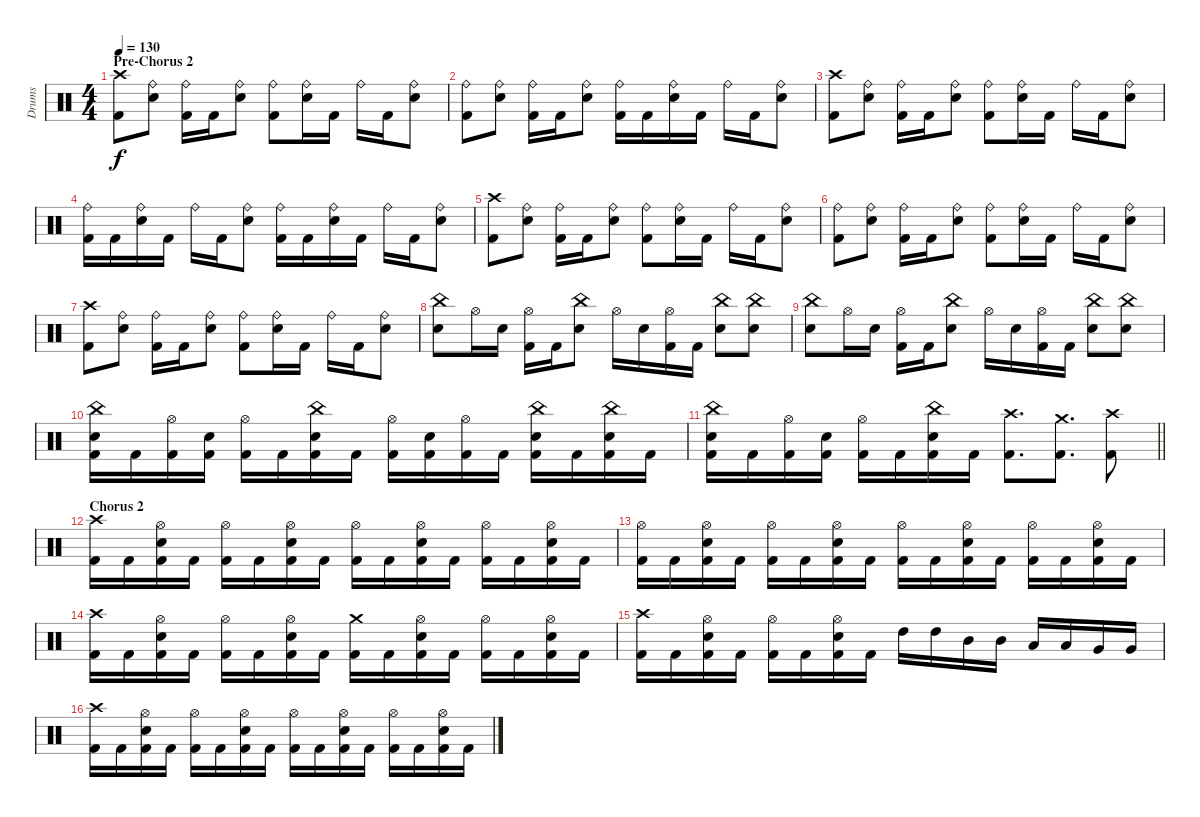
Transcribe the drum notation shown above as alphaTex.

\track ("Drums" "Drums") {instrument percussion}
\staff {score}
\articulation defaults
\ts (4 4)
\section ("" "Pre-Chorus 2")
\tempo 130
\clef neutral
\ks c
("Crash high (hit)" "Kick (hit) 2").8{dy f} ("Ride (bell)" "Electric Snare (hit)").8 ("Ride (bell)" "Kick (hit) 2").16 "Kick (hit) 2".16 ("Ride (bell)" "Electric Snare (hit)").8 ("Ride (bell)" "Kick (hit) 2").8 ("Ride (bell)" "Electric Snare (hit)").16 "Kick (hit) 2".16 "Ride (bell)".16 "Kick (hit) 2".16 ("Ride (bell)" "Electric Snare (hit)").8 |
("Ride (bell)" "Kick (hit) 2").8 ("Ride (bell)" "Electric Snare (hit)").8 ("Ride (bell)" "Kick (hit) 2").16 "Kick (hit) 2".16 ("Ride (bell)" "Electric Snare (hit)").8 ("Ride (bell)" "Kick (hit) 2").16 "Kick (hit) 2".16 ("Ride (bell)" "Electric Snare (hit)").16 "Kick (hit) 2".16 "Ride (bell)".16 "Kick (hit) 2".16 ("Ride (bell)" "Electric Snare (hit)").8 |
("Crash high (hit)" "Kick (hit) 2").8 ("Ride (bell)" "Electric Snare (hit)").8 ("Ride (bell)" "Kick (hit) 2").16 "Kick (hit) 2".16 ("Ride (bell)" "Electric Snare (hit)").8 ("Ride (bell)" "Kick (hit) 2").8 ("Ride (bell)" "Electric Snare (hit)").16 "Kick (hit) 2".16 "Ride (bell)".16 "Kick (hit) 2".16 ("Ride (bell)" "Electric Snare (hit)").8 |
("Ride (bell)" "Kick (hit) 2").16 "Kick (hit) 2".16 ("Ride (bell)" "Electric Snare (hit)").16 "Kick (hit) 2".16 "Ride (bell)".16 "Kick (hit) 2".16 ("Ride (bell)" "Electric Snare (hit)").8 ("Ride (bell)" "Kick (hit) 2").16 "Kick (hit) 2".16 ("Ride (bell)" "Electric Snare (hit)").16 "Kick (hit) 2".16 "Ride (bell)".16 "Kick (hit) 2".16 ("Ride (bell)" "Electric Snare (hit)").8 |
("Crash high (hit)" "Kick (hit) 2").8 ("Ride (bell)" "Electric Snare (hit)").8 ("Ride (bell)" "Kick (hit) 2").16 "Kick (hit) 2".16 ("Ride (bell)" "Electric Snare (hit)").8 ("Ride (bell)" "Kick (hit) 2").8 ("Ride (bell)" "Electric Snare (hit)").16 "Kick (hit) 2".16 "Ride (bell)".16 "Kick (hit) 2".16 ("Ride (bell)" "Electric Snare (hit)").8 |
("Ride (bell)" "Kick (hit) 2").8 ("Ride (bell)" "Electric Snare (hit)").8 ("Ride (bell)" "Kick (hit) 2").16 "Kick (hit) 2".16 ("Ride (bell)" "Electric Snare (hit)").8 ("Ride (bell)" "Kick (hit) 2").8 ("Ride (bell)" "Electric Snare (hit)").16 "Kick (hit) 2".16 "Ride (bell)".16 "Kick (hit) 2".16 ("Ride (bell)" "Electric Snare (hit)").8 |
("Crash high (hit)" "Kick (hit) 2").8 ("Ride (bell)" "Electric Snare (hit)").8 ("Ride (bell)" "Kick (hit) 2").16 "Kick (hit) 2".16 ("Ride (bell)" "Electric Snare (hit)").8 ("Ride (bell)" "Kick (hit) 2").8 ("Ride (bell)" "Electric Snare (hit)").16 "Kick (hit) 2".16 "Ride (bell)".16 "Kick (hit) 2".16 ("Ride (bell)" "Electric Snare (hit)").8 |
("China (hit)" "Electric Snare (hit)").8 "Hi-Hat (open)".16 "Electric Snare (hit)".16 ("Hi-Hat (open)" "Kick (hit) 2").16 "Kick (hit) 2".16 ("China (hit)" "Electric Snare (hit)").8 "Hi-Hat (open)".16 "Electric Snare (hit)".16 ("Hi-Hat (open)" "Kick (hit) 2").16 "Kick (hit) 2".16 ("China (hit)" "Electric Snare (hit)").8 ("China (hit)" "Electric Snare (hit)").8 |
("China (hit)" "Electric Snare (hit)").8 "Hi-Hat (open)".16 "Electric Snare (hit)".16 ("Hi-Hat (open)" "Kick (hit) 2").16 "Kick (hit) 2".16 ("China (hit)" "Electric Snare (hit)").8 "Hi-Hat (open)".16 "Electric Snare (hit)".16 ("Hi-Hat (open)" "Kick (hit) 2").16 "Kick (hit) 2".16 ("China (hit)" "Electric Snare (hit)").8 ("China (hit)" "Electric Snare (hit)").8 |
("China (hit)" "Electric Snare (hit)" "Kick (hit) 2").16 "Kick (hit) 2".16 ("Hi-Hat (open)" "Kick (hit) 2").16 ("Electric Snare (hit)" "Kick (hit) 2").16 ("Hi-Hat (open)" "Kick (hit) 2").16 "Kick (hit) 2".16 ("China (hit)" "Electric Snare (hit)" "Kick (hit) 2").16 "Kick (hit) 2".16 ("Hi-Hat (open)" "Kick (hit) 2").16 ("Electric Snare (hit)" "Kick (hit) 2").16 ("Hi-Hat (open)" "Kick (hit) 2").16 "Kick (hit) 2".16 ("China (hit)" "Electric Snare (hit)" "Kick (hit) 2").16 "Kick (hit) 2".16 ("China (hit)" "Electric Snare (hit)" "Kick (hit) 2").16 "Kick (hit) 2".16 |
\barLineRight lightlight
("China (hit)" "Electric Snare (hit)" "Kick (hit) 2").16 "Kick (hit) 2".16 ("Hi-Hat (open)" "Kick (hit) 2").16 ("Electric Snare (hit)" "Kick (hit) 2").16 ("Hi-Hat (open)" "Kick (hit) 2").16 "Kick (hit) 2".16 ("China (hit)" "Electric Snare (hit)" "Kick (hit) 2").16 "Kick (hit) 2".16 ("Crash high (hit)" "Kick (hit) 2").8{d} ("Crash medium (hit)" "Kick (hit) 2").8{d} ("Crash high (hit)" "Kick (hit) 2").8 |
\section ("" "Chorus 2")
("Crash high (hit)" "Kick (hit) 2").16 "Kick (hit) 2".16 ("Hi-Hat (open)" "Electric Snare (hit)" "Kick (hit) 2").16 "Kick (hit) 2".16 ("Hi-Hat (open)" "Kick (hit) 2").16 "Kick (hit) 2".16 ("Hi-Hat (open)" "Electric Snare (hit)" "Kick (hit) 2").16 "Kick (hit) 2".16 ("Hi-Hat (open)" "Kick (hit) 2").16 "Kick (hit) 2".16 ("Hi-Hat (open)" "Electric Snare (hit)" "Kick (hit) 2").16 "Kick (hit) 2".16 ("Hi-Hat (open)" "Kick (hit) 2").16 "Kick (hit) 2".16 ("Hi-Hat (open)" "Electric Snare (hit)" "Kick (hit) 2").16 "Kick (hit) 2".16 |
("Hi-Hat (open)" "Kick (hit) 2").16 "Kick (hit) 2".16 ("Hi-Hat (open)" "Electric Snare (hit)" "Kick (hit) 2").16 "Kick (hit) 2".16 ("Hi-Hat (open)" "Kick (hit) 2").16 "Kick (hit) 2".16 ("Hi-Hat (open)" "Electric Snare (hit)" "Kick (hit) 2").16 "Kick (hit) 2".16 ("Hi-Hat (open)" "Kick (hit) 2").16 "Kick (hit) 2".16 ("Hi-Hat (open)" "Electric Snare (hit)" "Kick (hit) 2").16 "Kick (hit) 2".16 ("Hi-Hat (open)" "Kick (hit) 2").16 "Kick (hit) 2".16 ("Hi-Hat (open)" "Electric Snare (hit)" "Kick (hit) 2").16 "Kick (hit) 2".16 |
("Crash high (hit)" "Kick (hit) 2").16 "Kick (hit) 2".16 ("Hi-Hat (open)" "Electric Snare (hit)" "Kick (hit) 2").16 "Kick (hit) 2".16 ("Hi-Hat (open)" "Kick (hit) 2").16 "Kick (hit) 2".16 ("Hi-Hat (open)" "Electric Snare (hit)" "Kick (hit) 2").16 "Kick (hit) 2".16 ("Crash medium (hit)" "Kick (hit) 2").16 "Kick (hit) 2".16 ("Hi-Hat (open)" "Electric Snare (hit)" "Kick (hit) 2").16 "Kick (hit) 2".16 ("Hi-Hat (open)" "Kick (hit) 2").16 "Kick (hit) 2".16 ("Hi-Hat (open)" "Electric Snare (hit)" "Kick (hit) 2").16 "Kick (hit) 2".16 |
("Crash high (hit)" "Kick (hit) 2").16 "Kick (hit) 2".16 ("Hi-Hat (open)" "Electric Snare (hit)" "Kick (hit) 2").16 "Kick (hit) 2".16 ("Hi-Hat (open)" "Kick (hit) 2").16 "Kick (hit) 2".16 ("Hi-Hat (open)" "Electric Snare (hit)" "Kick (hit) 2").16 "Kick (hit) 2".16 "High Tom (hit)".16 "High Tom (hit)".16 "Mid Tom (hit)".16 "Mid Tom (hit)".16 "Low Tom (hit)".16 "Low Tom (hit)".16 "Very Low Tom (hit)".16 "Very Low Tom (hit)".16 |
("Crash high (hit)" "Kick (hit) 2").16 "Kick (hit) 2".16 ("Hi-Hat (open)" "Electric Snare (hit)" "Kick (hit) 2").16 "Kick (hit) 2".16 ("Hi-Hat (open)" "Kick (hit) 2").16 "Kick (hit) 2".16 ("Hi-Hat (open)" "Electric Snare (hit)" "Kick (hit) 2").16 "Kick (hit) 2".16 ("Hi-Hat (open)" "Kick (hit) 2").16 "Kick (hit) 2".16 ("Hi-Hat (open)" "Electric Snare (hit)" "Kick (hit) 2").16 "Kick (hit) 2".16 ("Hi-Hat (open)" "Kick (hit) 2").16 "Kick (hit) 2".16 ("Hi-Hat (open)" "Electric Snare (hit)" "Kick (hit) 2").16 "Kick (hit) 2".16
